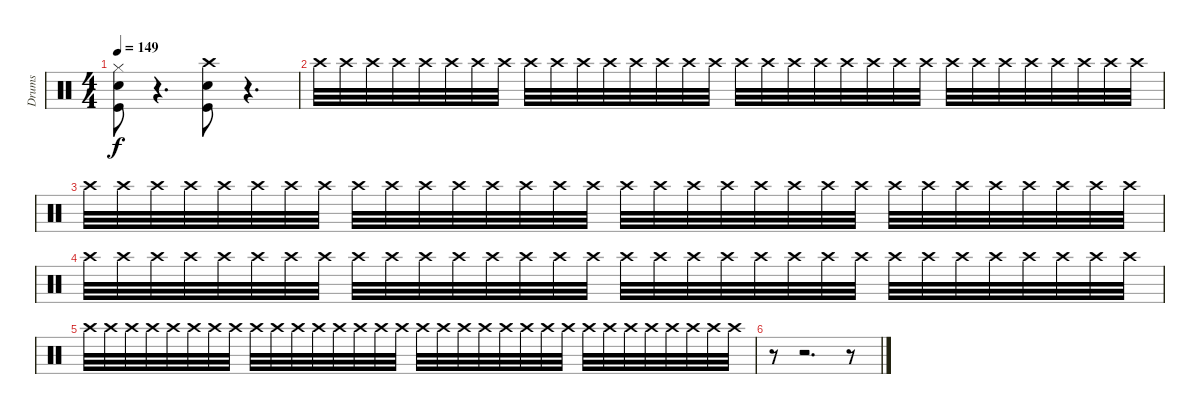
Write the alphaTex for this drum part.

\track ("Drums" "Drums") {instrument percussion}
\staff {score}
\articulation defaults
\ts (4 4)
\tempo 149
\clef neutral
\ks c
("Hi-Hat (closed)" "Snare (hit) 2" "Kick (hit)").8{dy f} r.4{d} ("Crash high (hit)" "Snare (hit) 2" "Kick (hit)").8 r.4{d} |
"Crash high (hit)".32 "Crash high (hit)".32 "Crash high (hit)".32 "Crash high (hit)".32 "Crash high (hit)".32 "Crash high (hit)".32 "Crash high (hit)".32 "Crash high (hit)".32 "Crash high (hit)".32 "Crash high (hit)".32 "Crash high (hit)".32 "Crash high (hit)".32 "Crash high (hit)".32 "Crash high (hit)".32 "Crash high (hit)".32 "Crash high (hit)".32 "Crash high (hit)".32 "Crash high (hit)".32 "Crash high (hit)".32 "Crash high (hit)".32 "Crash high (hit)".32 "Crash high (hit)".32 "Crash high (hit)".32 "Crash high (hit)".32 "Crash high (hit)".32 "Crash high (hit)".32 "Crash high (hit)".32 "Crash high (hit)".32 "Crash high (hit)".32 "Crash high (hit)".32 "Crash high (hit)".32 "Crash high (hit)".32 |
"Crash high (hit)".32 "Crash high (hit)".32 "Crash high (hit)".32 "Crash high (hit)".32 "Crash high (hit)".32 "Crash high (hit)".32 "Crash high (hit)".32 "Crash high (hit)".32 "Crash high (hit)".32 "Crash high (hit)".32 "Crash high (hit)".32 "Crash high (hit)".32 "Crash high (hit)".32 "Crash high (hit)".32 "Crash high (hit)".32 "Crash high (hit)".32 "Crash high (hit)".32 "Crash high (hit)".32 "Crash high (hit)".32 "Crash high (hit)".32 "Crash high (hit)".32 "Crash high (hit)".32 "Crash high (hit)".32 "Crash high (hit)".32 "Crash high (hit)".32 "Crash high (hit)".32 "Crash high (hit)".32 "Crash high (hit)".32 "Crash high (hit)".32 "Crash high (hit)".32 "Crash high (hit)".32 "Crash high (hit)".32 |
"Crash high (hit)".32 "Crash high (hit)".32 "Crash high (hit)".32 "Crash high (hit)".32 "Crash high (hit)".32 "Crash high (hit)".32 "Crash high (hit)".32 "Crash high (hit)".32 "Crash high (hit)".32 "Crash high (hit)".32 "Crash high (hit)".32 "Crash high (hit)".32 "Crash high (hit)".32 "Crash high (hit)".32 "Crash high (hit)".32 "Crash high (hit)".32 "Crash high (hit)".32 "Crash high (hit)".32 "Crash high (hit)".32 "Crash high (hit)".32 "Crash high (hit)".32 "Crash high (hit)".32 "Crash high (hit)".32 "Crash high (hit)".32 "Crash high (hit)".32 "Crash high (hit)".32 "Crash high (hit)".32 "Crash high (hit)".32 "Crash high (hit)".32 "Crash high (hit)".32 "Crash high (hit)".32 "Crash high (hit)".32 |
"Crash high (hit)".32 "Crash high (hit)".32 "Crash high (hit)".32 "Crash high (hit)".32 "Crash high (hit)".32 "Crash high (hit)".32 "Crash high (hit)".32 "Crash high (hit)".32 "Crash high (hit)".32 "Crash high (hit)".32 "Crash high (hit)".32 "Crash high (hit)".32 "Crash high (hit)".32 "Crash high (hit)".32 "Crash high (hit)".32 "Crash high (hit)".32 "Crash high (hit)".32 "Crash high (hit)".32 "Crash high (hit)".32 "Crash high (hit)".32 "Crash high (hit)".32 "Crash high (hit)".32 "Crash high (hit)".32 "Crash high (hit)".32 "Crash high (hit)".32 "Crash high (hit)".32 "Crash high (hit)".32 "Crash high (hit)".32 "Crash high (hit)".32 "Crash high (hit)".32 "Crash high (hit)".32 "Crash high (hit)".32 |
r.8 r.2{d} r.8
